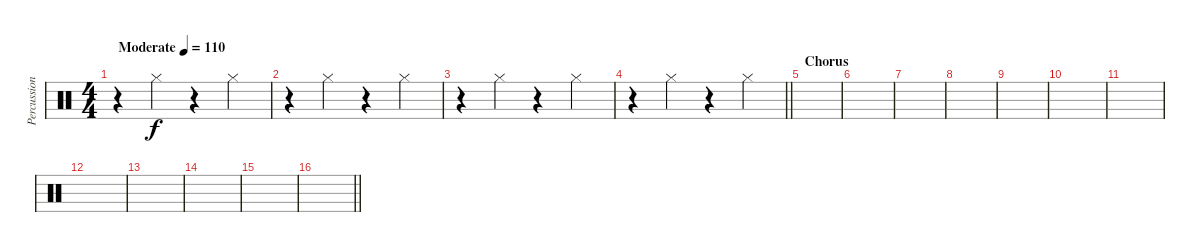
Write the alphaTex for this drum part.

\track ("Percussion" "Percussion") {instrument percussion}
\staff {score}
\articulation defaults
\ts (4 4)
\tempo (110 "Moderate")
\clef neutral
\ks c
r.4{dy f} "Hi-Hat (closed)".4 r.4 "Hi-Hat (closed)".4 |
r.4 "Hi-Hat (closed)".4 r.4 "Hi-Hat (closed)".4 |
r.4 "Hi-Hat (closed)".4 r.4 "Hi-Hat (closed)".4 |
\barLineRight lightlight
r.4 "Hi-Hat (closed)".4 r.4 "Hi-Hat (closed)".4 |
\section ("" "Chorus")
|
|
|
|
|
|
|
|
|
|
|
\barLineRight lightlight
